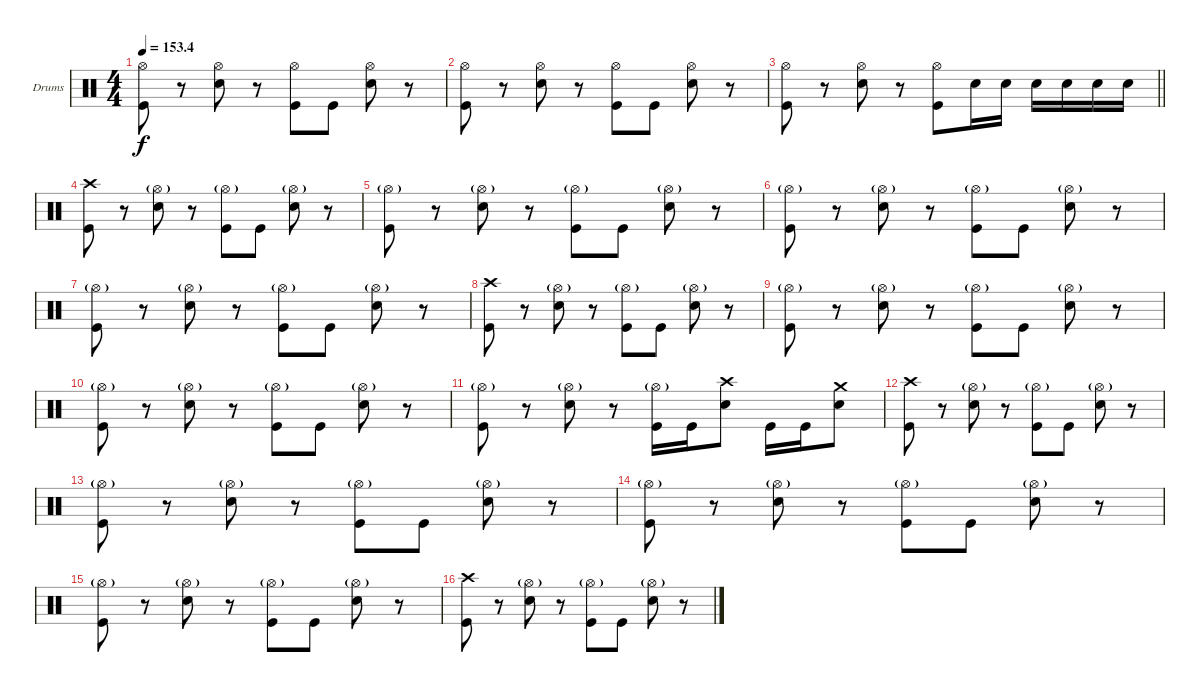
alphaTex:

\bracketExtendMode groupsimilarinstruments
\firstSystemTrackNameOrientation horizontal
\otherSystemsTrackNameOrientation horizontal
\track ("Drumkit" "Drums") {instrument percussion}
\staff {score}
\articulation defaults
\ts (4 4)
\tempo
153.4
\accidentals auto
\clef neutral
\ottava regular
\simile none
\ks c
("Hi-Hat (open)" "Kick (hit)").8{dy f} r.8 ("Hi-Hat (open)" "Snare (hit) 2").8 r.8 ("Hi-Hat (open)" "Kick (hit)").8 "Kick (hit)".8 ("Hi-Hat (open)" "Snare (hit) 2").8 r.8 |
("Hi-Hat (open)" "Kick (hit)").8 r.8 ("Hi-Hat (open)" "Snare (hit) 2").8 r.8 ("Hi-Hat (open)" "Kick (hit)").8 "Kick (hit)".8 ("Hi-Hat (open)" "Snare (hit) 2").8 r.8 |
\barLineRight lightlight
("Hi-Hat (open)" "Kick (hit)").8 r.8 ("Hi-Hat (open)" "Snare (hit) 2").8 r.8 ("Hi-Hat (open)" "Kick (hit)").8 "Snare (hit) 2".16 "Snare (hit) 2".16 "Snare (hit) 2".16 "Snare (hit) 2".16 "Snare (hit) 2".16 "Snare (hit) 2".16 |
("Crash high (hit)" "Kick (hit)").8 r.8 ("Hi-Hat (open)"{g} "Snare (hit) 2").8 r.8 ("Hi-Hat (open)"{g} "Kick (hit)").8 "Kick (hit)".8 ("Hi-Hat (open)"{g} "Snare (hit) 2").8 r.8 |
("Hi-Hat (open)"{g} "Kick (hit)").8 r.8 ("Hi-Hat (open)"{g} "Snare (hit) 2").8 r.8 ("Hi-Hat (open)"{g} "Kick (hit)").8 "Kick (hit)".8 ("Hi-Hat (open)"{g} "Snare (hit) 2").8 r.8 |
("Hi-Hat (open)"{g} "Kick (hit)").8 r.8 ("Hi-Hat (open)"{g} "Snare (hit) 2").8 r.8 ("Hi-Hat (open)"{g} "Kick (hit)").8 "Kick (hit)".8 ("Hi-Hat (open)"{g} "Snare (hit) 2").8 r.8 |
("Hi-Hat (open)"{g} "Kick (hit)").8 r.8 ("Hi-Hat (open)"{g} "Snare (hit) 2").8 r.8 ("Hi-Hat (open)"{g} "Kick (hit)").8 "Kick (hit)".8 ("Hi-Hat (open)"{g} "Snare (hit) 2").8 r.8 |
("Crash high (hit)" "Kick (hit)").8 r.8 ("Hi-Hat (open)"{g} "Snare (hit) 2").8 r.8 ("Hi-Hat (open)"{g} "Kick (hit)").8 "Kick (hit)".8 ("Hi-Hat (open)"{g} "Snare (hit) 2").8 r.8 |
("Hi-Hat (open)"{g} "Kick (hit)").8 r.8 ("Hi-Hat (open)"{g} "Snare (hit) 2").8 r.8 ("Hi-Hat (open)"{g} "Kick (hit)").8 "Kick (hit)".8 ("Hi-Hat (open)"{g} "Snare (hit) 2").8 r.8 |
("Hi-Hat (open)"{g} "Kick (hit)").8 r.8 ("Hi-Hat (open)"{g} "Snare (hit) 2").8 r.8 ("Hi-Hat (open)"{g} "Kick (hit)").8 "Kick (hit)".8 ("Hi-Hat (open)"{g} "Snare (hit) 2").8 r.8 |
("Hi-Hat (open)"{g} "Kick (hit)").8 r.8 ("Hi-Hat (open)"{g} "Snare (hit) 2").8 r.8 ("Hi-Hat (open)"{g} "Kick (hit)").16 "Kick (hit)".16 ("Crash high (hit)" "Snare (hit) 2").8 "Kick (hit)".16 "Kick (hit)".16 ("Crash medium (hit)" "Snare (hit) 2").8 |
("Crash high (hit)" "Kick (hit)").8 r.8 ("Hi-Hat (open)"{g} "Snare (hit) 2").8 r.8 ("Hi-Hat (open)"{g} "Kick (hit)").8 "Kick (hit)".8 ("Hi-Hat (open)"{g} "Snare (hit) 2").8 r.8 |
("Hi-Hat (open)"{g} "Kick (hit)").8 r.8 ("Hi-Hat (open)"{g} "Snare (hit) 2").8 r.8 ("Hi-Hat (open)"{g} "Kick (hit)").8 "Kick (hit)".8 ("Hi-Hat (open)"{g} "Snare (hit) 2").8 r.8 |
("Hi-Hat (open)"{g} "Kick (hit)").8 r.8 ("Hi-Hat (open)"{g} "Snare (hit) 2").8 r.8 ("Hi-Hat (open)"{g} "Kick (hit)").8 "Kick (hit)".8 ("Hi-Hat (open)"{g} "Snare (hit) 2").8 r.8 |
("Hi-Hat (open)"{g} "Kick (hit)").8 r.8 ("Hi-Hat (open)"{g} "Snare (hit) 2").8 r.8 ("Hi-Hat (open)"{g} "Kick (hit)").8 "Kick (hit)".8 ("Hi-Hat (open)"{g} "Snare (hit) 2").8 r.8 |
("Crash high (hit)" "Kick (hit)").8 r.8 ("Hi-Hat (open)"{g} "Snare (hit) 2").8 r.8 ("Hi-Hat (open)"{g} "Kick (hit)").8 "Kick (hit)".8 ("Hi-Hat (open)"{g} "Snare (hit) 2").8 r.8
